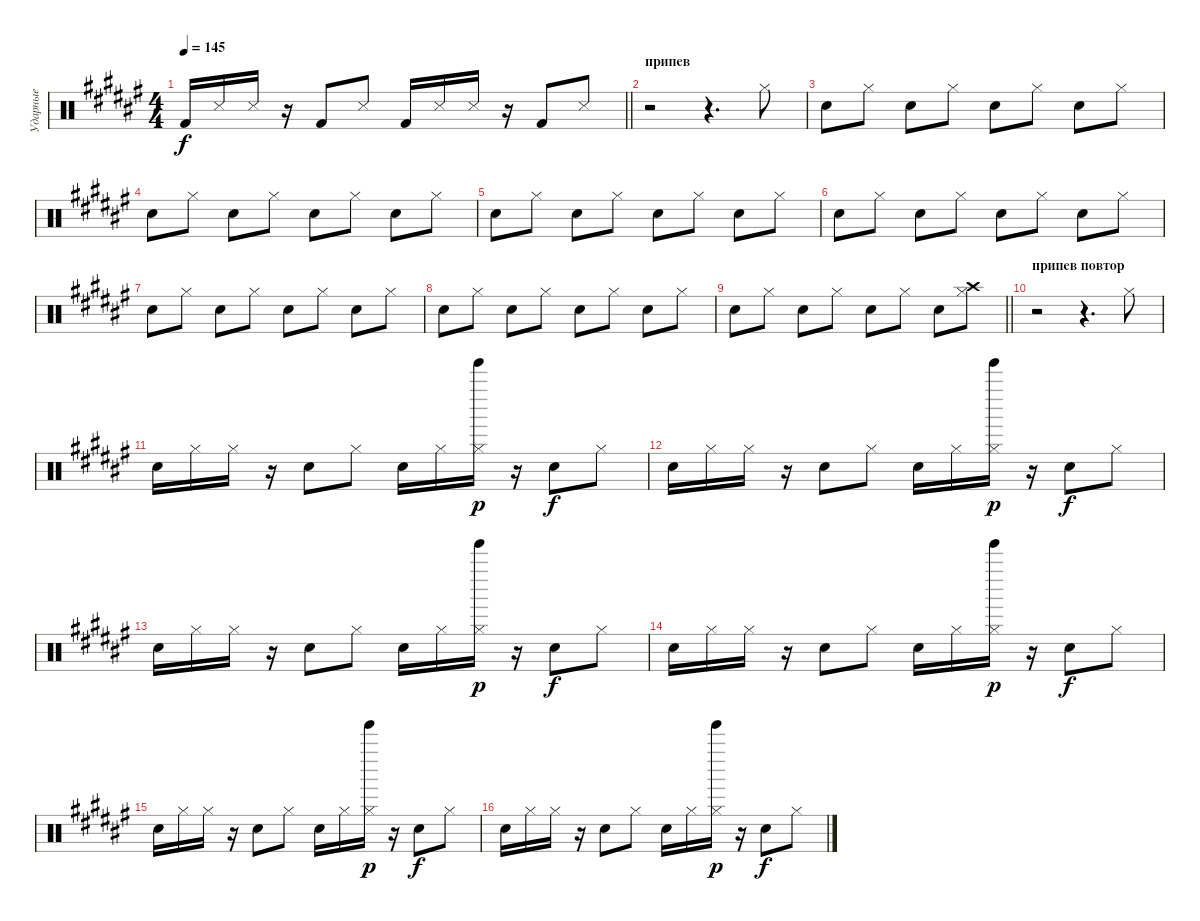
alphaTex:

\track ("Ударные" "Ударные") {instrument percussion}
\staff {score}
\articulation defaults
\ts (4 4)
\tempo 145
\clef neutral
\barLineRight lightlight
\ks f# "Kick (hit) 2".16{dy f} "Snare (side stick) 3".16 "Snare (side stick) 3".16
r.16 "Kick (hit) 2".8 "Snare (side stick) 3".8 "Kick (hit) 2".16 "Snare (side stick) 3".16 "Snare (side stick) 3".16 r.16 "Kick (hit) 2".8 "Snare (side stick) 3".8 |
\section ("" "припев")
r.2 r.4{d} "Hi-Hat (closed)".8 |
"Electric Snare (hit)".8 "Hi-Hat (closed)".8 "Electric Snare (hit)".8 "Hi-Hat (closed)".8 "Electric Snare (hit)".8 "Hi-Hat (closed)".8 "Electric Snare (hit)".8 "Hi-Hat (closed)".8 |
"Electric Snare (hit)".8 "Hi-Hat (closed)".8 "Electric Snare (hit)".8 "Hi-Hat (closed)".8 "Electric Snare (hit)".8 "Hi-Hat (closed)".8 "Electric Snare (hit)".8 "Hi-Hat (closed)".8 |
"Electric Snare (hit)".8 "Hi-Hat (closed)".8 "Electric Snare (hit)".8 "Hi-Hat (closed)".8 "Electric Snare (hit)".8 "Hi-Hat (closed)".8 "Electric Snare (hit)".8 "Hi-Hat (closed)".8 |
"Electric Snare (hit)".8 "Hi-Hat (closed)".8 "Electric Snare (hit)".8 "Hi-Hat (closed)".8 "Electric Snare (hit)".8 "Hi-Hat (closed)".8 "Electric Snare (hit)".8 "Hi-Hat (closed)".8 |
"Electric Snare (hit)".8 "Hi-Hat (closed)".8 "Electric Snare (hit)".8 "Hi-Hat (closed)".8 "Electric Snare (hit)".8 "Hi-Hat (closed)".8 "Electric Snare (hit)".8 "Hi-Hat (closed)".8 |
"Electric Snare (hit)".8 "Hi-Hat (closed)".8 "Electric Snare (hit)".8 "Hi-Hat (closed)".8 "Electric Snare (hit)".8 "Hi-Hat (closed)".8 "Electric Snare (hit)".8 "Hi-Hat (closed)".8 |
\barLineRight lightlight "Electric Snare (hit)".8 "Hi-Hat (closed)".8 "Electric Snare (hit)".8 "Hi-Hat (closed)".8 "Electric Snare (hit)".8 "Hi-Hat (closed)".8 "Electric Snare (hit)".8
("Hi-Hat (closed)" "Crash high (hit)").8 |
\section ("" "припев повтор")
r.2 r.4{d} "Hi-Hat (closed)".8 |
"Electric Snare (hit)".16 "Hi-Hat (closed)".16 "Hi-Hat (closed)".16 r.16 "Electric Snare (hit)".8 "Hi-Hat (closed)".8 "Electric Snare (hit)".16 "Hi-Hat (closed)".16 ("Hi-Hat (closed)" "Tinkle Bell (hit)").16{dy p} r.16 "Electric Snare (hit)".8{dy f} "Hi-Hat (closed)".8 |
"Electric Snare (hit)".16 "Hi-Hat (closed)".16 "Hi-Hat (closed)".16 r.16 "Electric Snare (hit)".8 "Hi-Hat (closed)".8 "Electric Snare (hit)".16 "Hi-Hat (closed)".16 ("Hi-Hat (closed)" "Tinkle Bell (hit)").16{dy p} r.16 "Electric Snare (hit)".8{dy f} "Hi-Hat (closed)".8 |
"Electric Snare (hit)".16 "Hi-Hat (closed)".16 "Hi-Hat (closed)".16 r.16 "Electric Snare (hit)".8 "Hi-Hat (closed)".8 "Electric Snare (hit)".16 "Hi-Hat (closed)".16 ("Hi-Hat (closed)" "Tinkle Bell (hit)").16{dy p} r.16 "Electric Snare (hit)".8{dy f} "Hi-Hat (closed)".8 |
"Electric Snare (hit)".16 "Hi-Hat (closed)".16 "Hi-Hat (closed)".16 r.16 "Electric Snare (hit)".8 "Hi-Hat (closed)".8 "Electric Snare (hit)".16 "Hi-Hat (closed)".16 ("Hi-Hat (closed)" "Tinkle Bell (hit)").16{dy p} r.16 "Electric Snare (hit)".8{dy f} "Hi-Hat (closed)".8 |
"Electric Snare (hit)".16 "Hi-Hat (closed)".16 "Hi-Hat (closed)".16 r.16 "Electric Snare (hit)".8 "Hi-Hat (closed)".8 "Electric Snare (hit)".16 "Hi-Hat (closed)".16 ("Hi-Hat (closed)" "Tinkle Bell (hit)").16{dy p} r.16 "Electric Snare (hit)".8{dy f} "Hi-Hat (closed)".8 |
"Electric Snare (hit)".16 "Hi-Hat (closed)".16 "Hi-Hat (closed)".16 r.16 "Electric Snare (hit)".8 "Hi-Hat (closed)".8 "Electric Snare (hit)".16 "Hi-Hat (closed)".16 ("Hi-Hat (closed)" "Tinkle Bell (hit)").16{dy p} r.16 "Electric Snare (hit)".8{dy f} "Hi-Hat (closed)".8
